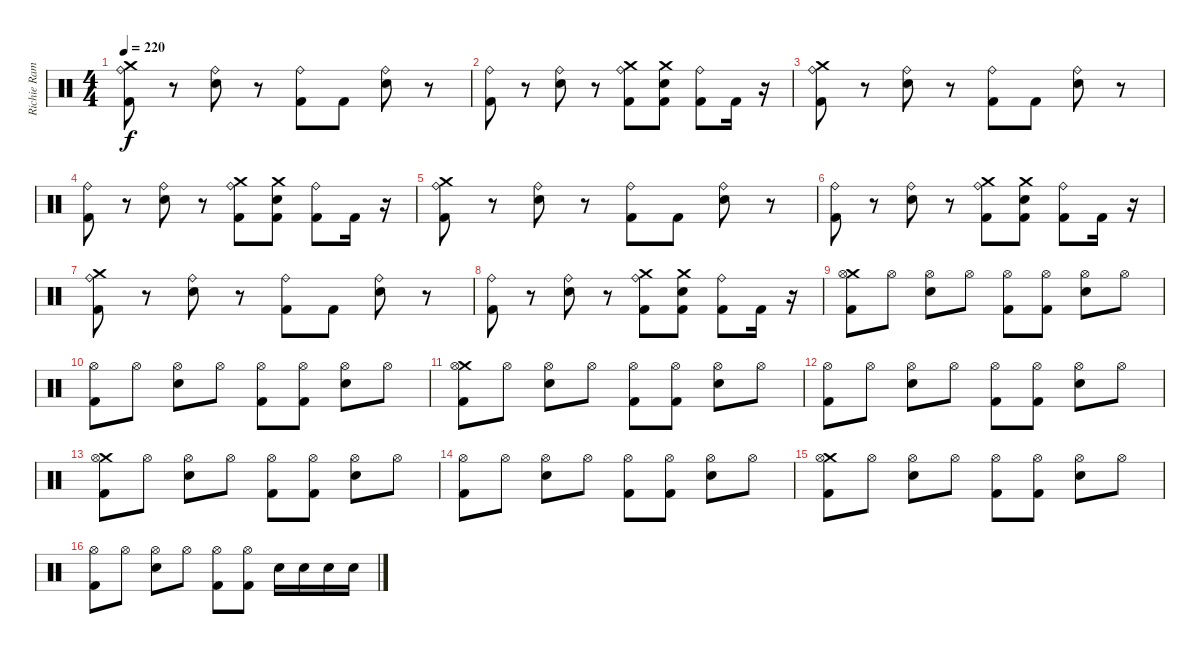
\track ("Richie Ramone" "Richie Ram") {instrument percussion}
\staff {score}
\articulation defaults
\ts (4 4)
\tempo 220
\clef neutral
\ks c
("Crash medium (hit)" "Ride (bell)" "Kick (hit) 2").8{dy f} r.8 ("Ride (bell)" "Electric Snare (hit)").8 r.8 ("Ride (bell)" "Kick (hit) 2").8 "Kick (hit) 2".8 ("Ride (bell)" "Electric Snare (hit)").8 r.8 |
("Ride (bell)" "Kick (hit) 2").8 r.8 ("Ride (bell)" "Electric Snare (hit)").8 r.8 ("Crash medium (hit)" "Ride (bell)" "Kick (hit) 2").8 ("Electric Snare (hit)" "Crash medium (hit)" "Kick (hit) 2").8 ("Kick (hit) 2" "Ride (bell)").8 "Kick (hit) 2".16 r.16 |
("Crash medium (hit)" "Ride (bell)" "Kick (hit) 2").8 r.8 ("Ride (bell)" "Electric Snare (hit)").8 r.8 ("Ride (bell)" "Kick (hit) 2").8 "Kick (hit) 2".8 ("Ride (bell)" "Electric Snare (hit)").8 r.8 |
("Ride (bell)" "Kick (hit) 2").8 r.8 ("Ride (bell)" "Electric Snare (hit)").8 r.8 ("Crash medium (hit)" "Ride (bell)" "Kick (hit) 2").8 ("Electric Snare (hit)" "Crash medium (hit)" "Kick (hit) 2").8 ("Kick (hit) 2" "Ride (bell)").8 "Kick (hit) 2".16 r.16 |
("Crash medium (hit)" "Ride (bell)" "Kick (hit) 2").8 r.8 ("Ride (bell)" "Electric Snare (hit)").8 r.8 ("Ride (bell)" "Kick (hit) 2").8 "Kick (hit) 2".8 ("Ride (bell)" "Electric Snare (hit)").8 r.8 |
("Ride (bell)" "Kick (hit) 2").8 r.8 ("Ride (bell)" "Electric Snare (hit)").8 r.8 ("Crash medium (hit)" "Ride (bell)" "Kick (hit) 2").8 ("Electric Snare (hit)" "Crash medium (hit)" "Kick (hit) 2").8 ("Kick (hit) 2" "Ride (bell)").8 "Kick (hit) 2".16 r.16 |
("Crash medium (hit)" "Ride (bell)" "Kick (hit) 2").8 r.8 ("Ride (bell)" "Electric Snare (hit)").8 r.8 ("Ride (bell)" "Kick (hit) 2").8 "Kick (hit) 2".8 ("Ride (bell)" "Electric Snare (hit)").8 r.8 |
("Ride (bell)" "Kick (hit) 2").8 r.8 ("Ride (bell)" "Electric Snare (hit)").8 r.8 ("Crash medium (hit)" "Ride (bell)" "Kick (hit) 2").8 ("Electric Snare (hit)" "Crash medium (hit)" "Kick (hit) 2").8 ("Kick (hit) 2" "Ride (bell)").8 "Kick (hit) 2".16 r.16 |
("Kick (hit) 2" "Crash medium (hit)" "Hi-Hat (open)").8 "Hi-Hat (open)".8 ("Electric Snare (hit)" "Hi-Hat (open)").8 "Hi-Hat (open)".8 ("Hi-Hat (open)" "Kick (hit) 2").8 ("Hi-Hat (open)" "Kick (hit) 2").8 ("Electric Snare (hit)" "Hi-Hat (open)").8 "Hi-Hat (open)".8 |
("Kick (hit) 2" "Hi-Hat (open)").8 "Hi-Hat (open)".8 ("Electric Snare (hit)" "Hi-Hat (open)").8 "Hi-Hat (open)".8 ("Hi-Hat (open)" "Kick (hit) 2").8 ("Hi-Hat (open)" "Kick (hit) 2").8 ("Electric Snare (hit)" "Hi-Hat (open)").8 "Hi-Hat (open)".8 |
("Kick (hit) 2" "Crash medium (hit)" "Hi-Hat (open)").8 "Hi-Hat (open)".8 ("Electric Snare (hit)" "Hi-Hat (open)").8 "Hi-Hat (open)".8 ("Hi-Hat (open)" "Kick (hit) 2").8 ("Hi-Hat (open)" "Kick (hit) 2").8 ("Electric Snare (hit)" "Hi-Hat (open)").8 "Hi-Hat (open)".8 |
("Kick (hit) 2" "Hi-Hat (open)").8 "Hi-Hat (open)".8 ("Electric Snare (hit)" "Hi-Hat (open)").8 "Hi-Hat (open)".8 ("Hi-Hat (open)" "Kick (hit) 2").8 ("Hi-Hat (open)" "Kick (hit) 2").8 ("Electric Snare (hit)" "Hi-Hat (open)").8 "Hi-Hat (open)".8 |
("Kick (hit) 2" "Crash medium (hit)" "Hi-Hat (open)").8 "Hi-Hat (open)".8 ("Electric Snare (hit)" "Hi-Hat (open)").8 "Hi-Hat (open)".8 ("Hi-Hat (open)" "Kick (hit) 2").8 ("Hi-Hat (open)" "Kick (hit) 2").8 ("Electric Snare (hit)" "Hi-Hat (open)").8 "Hi-Hat (open)".8 |
("Kick (hit) 2" "Hi-Hat (open)").8 "Hi-Hat (open)".8 ("Electric Snare (hit)" "Hi-Hat (open)").8 "Hi-Hat (open)".8 ("Hi-Hat (open)" "Kick (hit) 2").8 ("Hi-Hat (open)" "Kick (hit) 2").8 ("Electric Snare (hit)" "Hi-Hat (open)").8 "Hi-Hat (open)".8 |
("Kick (hit) 2" "Crash medium (hit)" "Hi-Hat (open)").8 "Hi-Hat (open)".8 ("Electric Snare (hit)" "Hi-Hat (open)").8 "Hi-Hat (open)".8 ("Hi-Hat (open)" "Kick (hit) 2").8 ("Hi-Hat (open)" "Kick (hit) 2").8 ("Electric Snare (hit)" "Hi-Hat (open)").8 "Hi-Hat (open)".8 |
("Kick (hit) 2" "Hi-Hat (open)").8 "Hi-Hat (open)".8 ("Electric Snare (hit)" "Hi-Hat (open)").8 "Hi-Hat (open)".8 ("Hi-Hat (open)" "Kick (hit) 2").8 ("Hi-Hat (open)" "Kick (hit) 2").8 "Electric Snare (hit)".16 "Electric Snare (hit)".16 "Electric Snare (hit)".16 "Electric Snare (hit)".16
